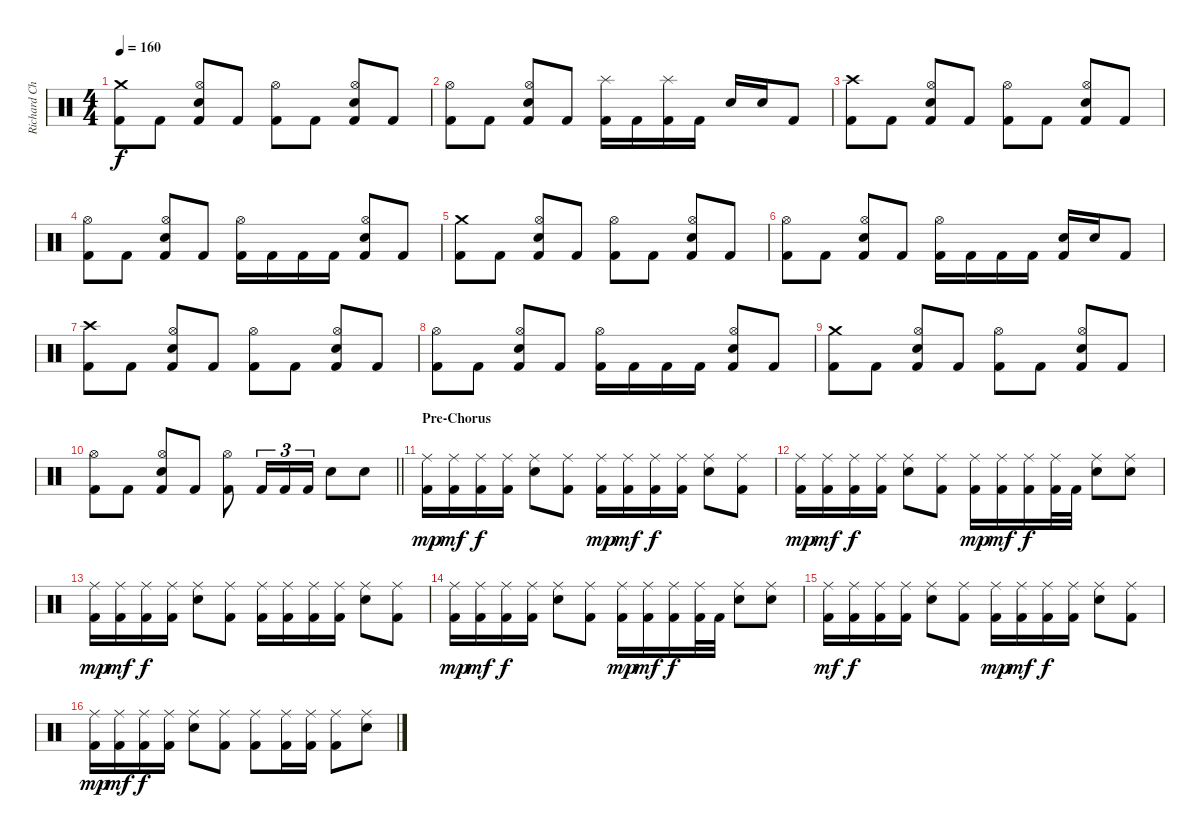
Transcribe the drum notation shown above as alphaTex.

\track ("Richard Christy" "Richard Ch") {instrument percussion}
\staff {score}
\articulation defaults
\ts (4 4)
\tempo 160
\clef neutral
\ks c
("Crash medium (hit)" "Kick (hit) 2").8{dy f} "Kick (hit) 2".8 ("Hi-Hat (open)" "Snare (hit) 2" "Kick (hit) 2").8 "Kick (hit) 2".8 ("Hi-Hat (open)" "Kick (hit) 2").8 "Kick (hit) 2".8 ("Hi-Hat (open)" "Snare (hit) 2" "Kick (hit) 2").8 "Kick (hit) 2".8 |
("Hi-Hat (open)" "Kick (hit) 2").8 "Kick (hit) 2".8 ("Hi-Hat (open)" "Snare (hit) 2" "Kick (hit) 2").8 "Kick (hit) 2".8 ("Splash (hit)" "Kick (hit) 2").16 "Kick (hit) 2".16 ("Splash (hit)" "Kick (hit) 2").16 "Kick (hit) 2".16 "Snare (hit) 2".16 "Snare (hit) 2".16 "Kick (hit) 2".8 |
("Crash high (hit)" "Kick (hit) 2").8 "Kick (hit) 2".8 ("Hi-Hat (open)" "Snare (hit) 2" "Kick (hit) 2").8 "Kick (hit) 2".8 ("Hi-Hat (open)" "Kick (hit) 2").8 "Kick (hit) 2".8 ("Hi-Hat (open)" "Snare (hit) 2" "Kick (hit) 2").8 "Kick (hit) 2".8 |
("Hi-Hat (open)" "Kick (hit) 2").8 "Kick (hit) 2".8 ("Hi-Hat (open)" "Snare (hit) 2" "Kick (hit) 2").8 "Kick (hit) 2".8 ("Hi-Hat (open)" "Kick (hit) 2").16 "Kick (hit) 2".16 "Kick (hit) 2".16 "Kick (hit) 2".16 ("Hi-Hat (open)" "Snare (hit) 2" "Kick (hit) 2").8 "Kick (hit) 2".8 |
("Crash medium (hit)" "Kick (hit) 2").8 "Kick (hit) 2".8 ("Hi-Hat (open)" "Snare (hit) 2" "Kick (hit) 2").8 "Kick (hit) 2".8 ("Hi-Hat (open)" "Kick (hit) 2").8 "Kick (hit) 2".8 ("Hi-Hat (open)" "Snare (hit) 2" "Kick (hit) 2").8 "Kick (hit) 2".8 |
("Hi-Hat (open)" "Kick (hit) 2").8 "Kick (hit) 2".8 ("Hi-Hat (open)" "Snare (hit) 2" "Kick (hit) 2").8 "Kick (hit) 2".8 ("Hi-Hat (open)" "Kick (hit) 2").16 "Kick (hit) 2".16 "Kick (hit) 2".16 "Kick (hit) 2".16 ("Snare (hit) 2" "Kick (hit) 2").16 "Snare (hit) 2".16 "Kick (hit) 2".8 |
("Crash high (hit)" "Kick (hit) 2").8 "Kick (hit) 2".8 ("Hi-Hat (open)" "Snare (hit) 2" "Kick (hit) 2").8 "Kick (hit) 2".8 ("Hi-Hat (open)" "Kick (hit) 2").8 "Kick (hit) 2".8 ("Hi-Hat (open)" "Snare (hit) 2" "Kick (hit) 2").8 "Kick (hit) 2".8 |
("Hi-Hat (open)" "Kick (hit) 2").8 "Kick (hit) 2".8 ("Hi-Hat (open)" "Snare (hit) 2" "Kick (hit) 2").8 "Kick (hit) 2".8 ("Hi-Hat (open)" "Kick (hit) 2").16 "Kick (hit) 2".16 "Kick (hit) 2".16 "Kick (hit) 2".16 ("Hi-Hat (open)" "Snare (hit) 2" "Kick (hit) 2").8 "Kick (hit) 2".8 |
("Crash medium (hit)" "Kick (hit) 2").8 "Kick (hit) 2".8 ("Hi-Hat (open)" "Snare (hit) 2" "Kick (hit) 2").8 "Kick (hit) 2".8 ("Hi-Hat (open)" "Kick (hit) 2").8 "Kick (hit) 2".8 ("Hi-Hat (open)" "Snare (hit) 2" "Kick (hit) 2").8 "Kick (hit) 2".8 |
\barLineRight lightlight
("Hi-Hat (open)" "Kick (hit) 2").8 "Kick (hit) 2".8 ("Hi-Hat (open)" "Snare (hit) 2" "Kick (hit) 2").8 "Kick (hit) 2".8 ("Hi-Hat (open)" "Kick (hit) 2").8 "Kick (hit) 2".16{tu (3 2)} "Kick (hit) 2".16{tu (3 2)} "Kick (hit) 2".16{tu (3 2)} "Snare (hit) 2".8 "Snare (hit) 2".8 |
\section ("" "Pre-Chorus")
("Ride (middle)" "Kick (hit) 2").16{dy mp} ("Ride (middle)" "Kick (hit) 2").16{dy mf} ("Ride (middle)" "Kick (hit) 2").16{dy f} ("Ride (middle)" "Kick (hit) 2").16 ("Ride (middle)" "Snare (hit) 2").8 ("Ride (middle)" "Kick (hit) 2").8 ("Ride (middle)" "Kick (hit) 2").16{dy mp} ("Ride (middle)" "Kick (hit) 2").16{dy mf} ("Ride (middle)" "Kick (hit) 2").16{dy f} ("Ride (middle)" "Kick (hit) 2").16 ("Ride (middle)" "Snare (hit) 2").8 ("Ride (middle)" "Kick (hit) 2").8 |
("Ride (middle)" "Kick (hit) 2").16{dy mp} ("Ride (middle)" "Kick (hit) 2").16{dy mf} ("Ride (middle)" "Kick (hit) 2").16{dy f} ("Ride (middle)" "Kick (hit) 2").16 ("Ride (middle)" "Snare (hit) 2").8 ("Ride (middle)" "Kick (hit) 2").8 ("Ride (middle)" "Kick (hit) 2").16{dy mp} ("Ride (middle)" "Kick (hit) 2").16{dy mf} ("Ride (middle)" "Kick (hit) 2").16{dy f} ("Ride (middle)" "Kick (hit) 2").32 "Kick (hit) 2".32 ("Ride (middle)" "Snare (hit) 2").8 ("Ride (middle)" "Snare (hit) 2").8 |
("Ride (middle)" "Kick (hit) 2").16{dy mp} ("Ride (middle)" "Kick (hit) 2").16{dy mf} ("Ride (middle)" "Kick (hit) 2").16{dy f} ("Ride (middle)" "Kick (hit) 2").16 ("Ride (middle)" "Snare (hit) 2").8 ("Ride (middle)" "Kick (hit) 2").8 ("Ride (middle)" "Kick (hit) 2").16 ("Ride (middle)" "Kick (hit) 2").16 ("Ride (middle)" "Kick (hit) 2").16 ("Ride (middle)" "Kick (hit) 2").16 ("Ride (middle)" "Snare (hit) 2").8 ("Ride (middle)" "Kick (hit) 2").8 |
("Ride (middle)" "Kick (hit) 2").16{dy mp} ("Ride (middle)" "Kick (hit) 2").16{dy mf} ("Ride (middle)" "Kick (hit) 2").16{dy f} ("Ride (middle)" "Kick (hit) 2").16 ("Ride (middle)" "Snare (hit) 2").8 ("Ride (middle)" "Kick (hit) 2").8 ("Ride (middle)" "Kick (hit) 2").16{dy mp} ("Ride (middle)" "Kick (hit) 2").16{dy mf} ("Ride (middle)" "Kick (hit) 2").16{dy f} ("Ride (middle)" "Kick (hit) 2").32 "Kick (hit) 2".32 ("Ride (middle)" "Snare (hit) 2").8 ("Ride (middle)" "Snare (hit) 2").8 |
("Ride (middle)" "Kick (hit) 2").16{dy mf} ("Ride (middle)" "Kick (hit) 2").16{dy f} ("Ride (middle)" "Kick (hit) 2").16 ("Ride (middle)" "Kick (hit) 2").16 ("Ride (middle)" "Snare (hit) 2").8 ("Ride (middle)" "Kick (hit) 2").8 ("Ride (middle)" "Kick (hit) 2").16{dy mp} ("Ride (middle)" "Kick (hit) 2").16{dy mf} ("Ride (middle)" "Kick (hit) 2").16{dy f} ("Ride (middle)" "Kick (hit) 2").16 ("Ride (middle)" "Snare (hit) 2").8 ("Ride (middle)" "Kick (hit) 2").8 |
("Ride (middle)" "Kick (hit) 2").16{dy mp} ("Ride (middle)" "Kick (hit) 2").16{dy mf} ("Ride (middle)" "Kick (hit) 2").16{dy f} ("Ride (middle)" "Kick (hit) 2").16 ("Ride (middle)" "Snare (hit) 2").8 ("Ride (middle)" "Kick (hit) 2").8 ("Ride (middle)" "Kick (hit) 2").8 ("Ride (middle)" "Kick (hit) 2").16 ("Ride (middle)" "Kick (hit) 2").16 ("Ride (middle)" "Kick (hit) 2").8 ("Ride (middle)" "Snare (hit) 2").8
